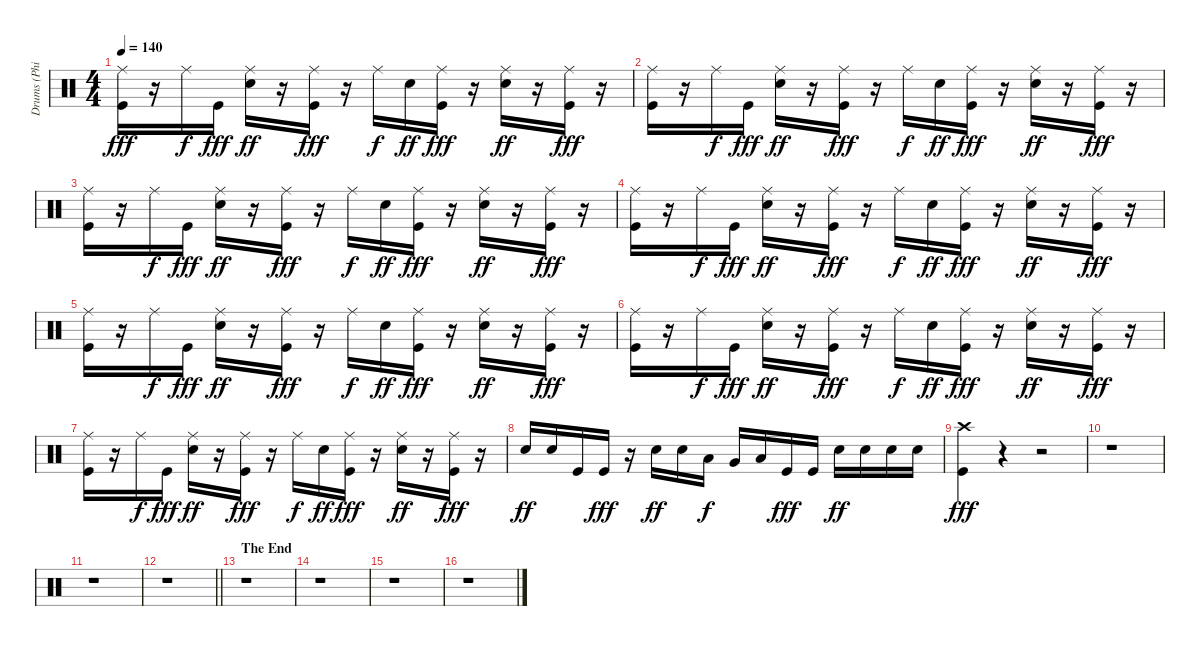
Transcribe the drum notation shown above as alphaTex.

\track ("Drums (Phillip Selway)" "Drums (Phi") {instrument percussion}
\staff {score}
\articulation defaults
\ts (4 4)
\tempo 140
\clef neutral
\ks c
("Ride (middle)" "Kick (hit)").16{dy fff} r.16 "Ride (middle)".16{dy f} "Kick (hit)".16{dy fff} ("Ride (middle)" "Electric Snare (hit)").16{dy ff} r.16 ("Ride (middle)" "Kick (hit)").16{dy fff} r.16 "Ride (middle)".16{dy f} "Electric Snare (hit)".16{dy ff} ("Ride (middle)" "Kick (hit)").16{dy fff} r.16 ("Ride (middle)" "Electric Snare (hit)").16{dy ff} r.16 ("Ride (middle)" "Kick (hit)").16{dy fff} r.16 |
("Ride (middle)" "Kick (hit)").16 r.16 "Ride (middle)".16{dy f} "Kick (hit)".16{dy fff} ("Ride (middle)" "Electric Snare (hit)").16{dy ff} r.16 ("Ride (middle)" "Kick (hit)").16{dy fff} r.16 "Ride (middle)".16{dy f} "Electric Snare (hit)".16{dy ff} ("Ride (middle)" "Kick (hit)").16{dy fff} r.16 ("Ride (middle)" "Electric Snare (hit)").16{dy ff} r.16 ("Ride (middle)" "Kick (hit)").16{dy fff} r.16 |
("Ride (middle)" "Kick (hit)").16 r.16 "Ride (middle)".16{dy f} "Kick (hit)".16{dy fff} ("Ride (middle)" "Electric Snare (hit)").16{dy ff} r.16 ("Ride (middle)" "Kick (hit)").16{dy fff} r.16 "Ride (middle)".16{dy f} "Electric Snare (hit)".16{dy ff} ("Ride (middle)" "Kick (hit)").16{dy fff} r.16 ("Ride (middle)" "Electric Snare (hit)").16{dy ff} r.16 ("Ride (middle)" "Kick (hit)").16{dy fff} r.16 |
("Ride (middle)" "Kick (hit)").16 r.16 "Ride (middle)".16{dy f} "Kick (hit)".16{dy fff} ("Ride (middle)" "Electric Snare (hit)").16{dy ff} r.16 ("Ride (middle)" "Kick (hit)").16{dy fff} r.16 "Ride (middle)".16{dy f} "Electric Snare (hit)".16{dy ff} ("Ride (middle)" "Kick (hit)").16{dy fff} r.16 ("Ride (middle)" "Electric Snare (hit)").16{dy ff} r.16 ("Ride (middle)" "Kick (hit)").16{dy fff} r.16 |
("Ride (middle)" "Kick (hit)").16 r.16 "Ride (middle)".16{dy f} "Kick (hit)".16{dy fff} ("Ride (middle)" "Electric Snare (hit)").16{dy ff} r.16 ("Ride (middle)" "Kick (hit)").16{dy fff} r.16 "Ride (middle)".16{dy f} "Electric Snare (hit)".16{dy ff} ("Ride (middle)" "Kick (hit)").16{dy fff} r.16 ("Ride (middle)" "Electric Snare (hit)").16{dy ff} r.16 ("Ride (middle)" "Kick (hit)").16{dy fff} r.16 |
("Ride (middle)" "Kick (hit)").16 r.16 "Ride (middle)".16{dy f} "Kick (hit)".16{dy fff} ("Ride (middle)" "Electric Snare (hit)").16{dy ff} r.16 ("Ride (middle)" "Kick (hit)").16{dy fff} r.16 "Ride (middle)".16{dy f} "Electric Snare (hit)".16{dy ff} ("Ride (middle)" "Kick (hit)").16{dy fff} r.16 ("Ride (middle)" "Electric Snare (hit)").16{dy ff} r.16 ("Ride (middle)" "Kick (hit)").16{dy fff} r.16 |
("Ride (middle)" "Kick (hit)").16 r.16 "Ride (middle)".16{dy f} "Kick (hit)".16{dy fff} ("Ride (middle)" "Electric Snare (hit)").16{dy ff} r.16 ("Ride (middle)" "Kick (hit)").16{dy fff} r.16 "Ride (middle)".16{dy f} "Electric Snare (hit)".16{dy ff} ("Ride (middle)" "Kick (hit)").16{dy fff} r.16 ("Ride (middle)" "Electric Snare (hit)").16{dy ff} r.16 ("Ride (middle)" "Kick (hit)").16{dy fff} r.16 |
"Electric Snare (hit)".16{dy ff} "Electric Snare (hit)".16 "Kick (hit)".16 "Kick (hit)".16{dy fff} r.16 "Electric Snare (hit)".16{dy ff} "Electric Snare (hit)".16 "Low Tom (hit)".16{dy f} "Very Low Tom (hit)".16 "Low Floor Tom (hit)".16 "Kick (hit)".16{dy fff} "Kick (hit)".16 "Electric Snare (hit)".16{dy ff} "Electric Snare (hit)".16 "Electric Snare (hit)".16 "Electric Snare (hit)".16 |
("Crash high (hit)" "Kick (hit)").4{dy fff} r.4 r.2 |
r.1 |
r.1 |
\barLineRight lightlight
r.1 |
\section ("" "The End")
r.1 |
r.1 |
r.1 |
r.1
